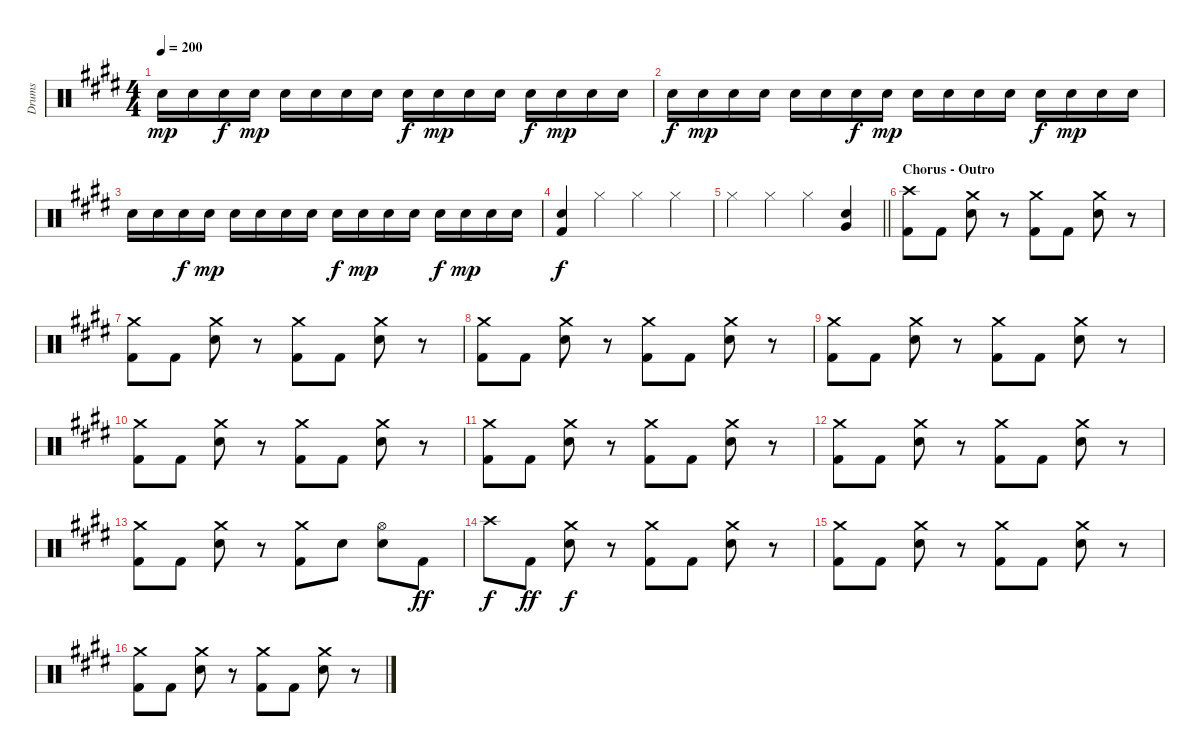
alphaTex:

\track ("Drums" "Drums") {instrument percussion}
\staff {score}
\articulation defaults
\ts (4 4)
\tempo 200
\clef neutral
\ks c#minor "Electric Snare (hit)".16{dy mp} "Electric Snare (hit)".16 "Electric Snare (hit)".16{dy f} "Electric Snare (hit)".16{dy mp} "Electric Snare (hit)".16 "Electric Snare (hit)".16 "Electric Snare (hit)".16 "Electric Snare (hit)".16 "Electric Snare (hit)".16{dy f} "Electric Snare (hit)".16{dy mp} "Electric Snare (hit)".16 "Electric Snare (hit)".16 "Electric Snare (hit)".16{dy f} "Electric Snare (hit)".16{dy mp} "Electric Snare (hit)".16 "Electric Snare (hit)".16
|
"Electric Snare (hit)".16{dy f} "Electric Snare (hit)".16{dy mp} "Electric Snare (hit)".16 "Electric Snare (hit)".16 "Electric Snare (hit)".16 "Electric Snare (hit)".16 "Electric Snare (hit)".16{dy f} "Electric Snare (hit)".16{dy mp} "Electric Snare (hit)".16 "Electric Snare (hit)".16 "Electric Snare (hit)".16 "Electric Snare (hit)".16 "Electric Snare (hit)".16{dy f} "Electric Snare (hit)".16{dy mp} "Electric Snare (hit)".16 "Electric Snare (hit)".16 |
"Electric Snare (hit)".16 "Electric Snare (hit)".16 "Electric Snare (hit)".16{dy f} "Electric Snare (hit)".16{dy mp} "Electric Snare (hit)".16 "Electric Snare (hit)".16 "Electric Snare (hit)".16 "Electric Snare (hit)".16 "Electric Snare (hit)".16{dy f} "Electric Snare (hit)".16{dy mp} "Electric Snare (hit)".16 "Electric Snare (hit)".16 "Electric Snare (hit)".16{dy f} "Electric Snare (hit)".16{dy mp} "Electric Snare (hit)".16 "Electric Snare (hit)".16 |
("Electric Snare (hit)" "Kick (hit) 2").4{dy f} "Hi-Hat (closed)".4 "Hi-Hat (closed)".4 "Hi-Hat (closed)".4 |
\barLineRight lightlight "Hi-Hat (closed)".4 "Hi-Hat (closed)".4 "Hi-Hat (closed)".4
("Electric Snare (hit)" "Very Low Tom (hit)").4 |
\section ("" "Chorus - Outro")
("Crash high (hit)" "Kick (hit) 2").8 "Kick (hit) 2".8 ("Crash medium (hit)" "Electric Snare (hit)").8 r.8 ("Crash medium (hit)" "Kick (hit) 2").8 "Kick (hit) 2".8 ("Crash medium (hit)" "Electric Snare (hit)").8 r.8 |
("Crash medium (hit)" "Kick (hit) 2").8 "Kick (hit) 2".8 ("Crash medium (hit)" "Electric Snare (hit)").8 r.8 ("Crash medium (hit)" "Kick (hit) 2").8 "Kick (hit) 2".8 ("Crash medium (hit)" "Electric Snare (hit)").8 r.8 |
("Crash medium (hit)" "Kick (hit) 2").8 "Kick (hit) 2".8 ("Crash medium (hit)" "Electric Snare (hit)").8 r.8 ("Crash medium (hit)" "Kick (hit) 2").8 "Kick (hit) 2".8 ("Crash medium (hit)" "Electric Snare (hit)").8 r.8 |
("Crash medium (hit)" "Kick (hit) 2").8 "Kick (hit) 2".8 ("Crash medium (hit)" "Electric Snare (hit)").8 r.8 ("Crash medium (hit)" "Kick (hit) 2").8 "Kick (hit) 2".8 ("Crash medium (hit)" "Electric Snare (hit)").8 r.8 |
("Crash medium (hit)" "Kick (hit) 2").8 "Kick (hit) 2".8 ("Crash medium (hit)" "Electric Snare (hit)").8 r.8 ("Crash medium (hit)" "Kick (hit) 2").8 "Kick (hit) 2".8 ("Crash medium (hit)" "Electric Snare (hit)").8 r.8 |
("Crash medium (hit)" "Kick (hit) 2").8 "Kick (hit) 2".8 ("Crash medium (hit)" "Electric Snare (hit)").8 r.8 ("Crash medium (hit)" "Kick (hit) 2").8 "Kick (hit) 2".8 ("Crash medium (hit)" "Electric Snare (hit)").8 r.8 |
("Crash medium (hit)" "Kick (hit) 2").8 "Kick (hit) 2".8 ("Crash medium (hit)" "Electric Snare (hit)").8 r.8 ("Crash medium (hit)" "Kick (hit) 2").8 "Kick (hit) 2".8 ("Crash medium (hit)" "Electric Snare (hit)").8 r.8 |
("Crash medium (hit)" "Kick (hit) 2").8 "Kick (hit) 2".8 ("Crash medium (hit)" "Electric Snare (hit)").8 r.8 ("Crash medium (hit)" "Kick (hit) 2").8 "Electric Snare (hit)".8 ("Hi-Hat (open)" "Electric Snare (hit)").8 "Kick (hit) 2".8{dy ff} |
"Crash high (hit)".8{dy f} "Kick (hit) 2".8{dy ff} ("Crash medium (hit)" "Electric Snare (hit)").8{dy f} r.8 ("Crash medium (hit)" "Kick (hit) 2").8 "Kick (hit) 2".8 ("Crash medium (hit)" "Electric Snare (hit)").8 r.8 |
("Crash medium (hit)" "Kick (hit) 2").8 "Kick (hit) 2".8 ("Crash medium (hit)" "Electric Snare (hit)").8 r.8 ("Crash medium (hit)" "Kick (hit) 2").8 "Kick (hit) 2".8 ("Crash medium (hit)" "Electric Snare (hit)").8 r.8 |
("Crash medium (hit)" "Kick (hit) 2").8 "Kick (hit) 2".8 ("Crash medium (hit)" "Electric Snare (hit)").8 r.8 ("Crash medium (hit)" "Kick (hit) 2").8 "Kick (hit) 2".8 ("Crash medium (hit)" "Electric Snare (hit)").8 r.8
